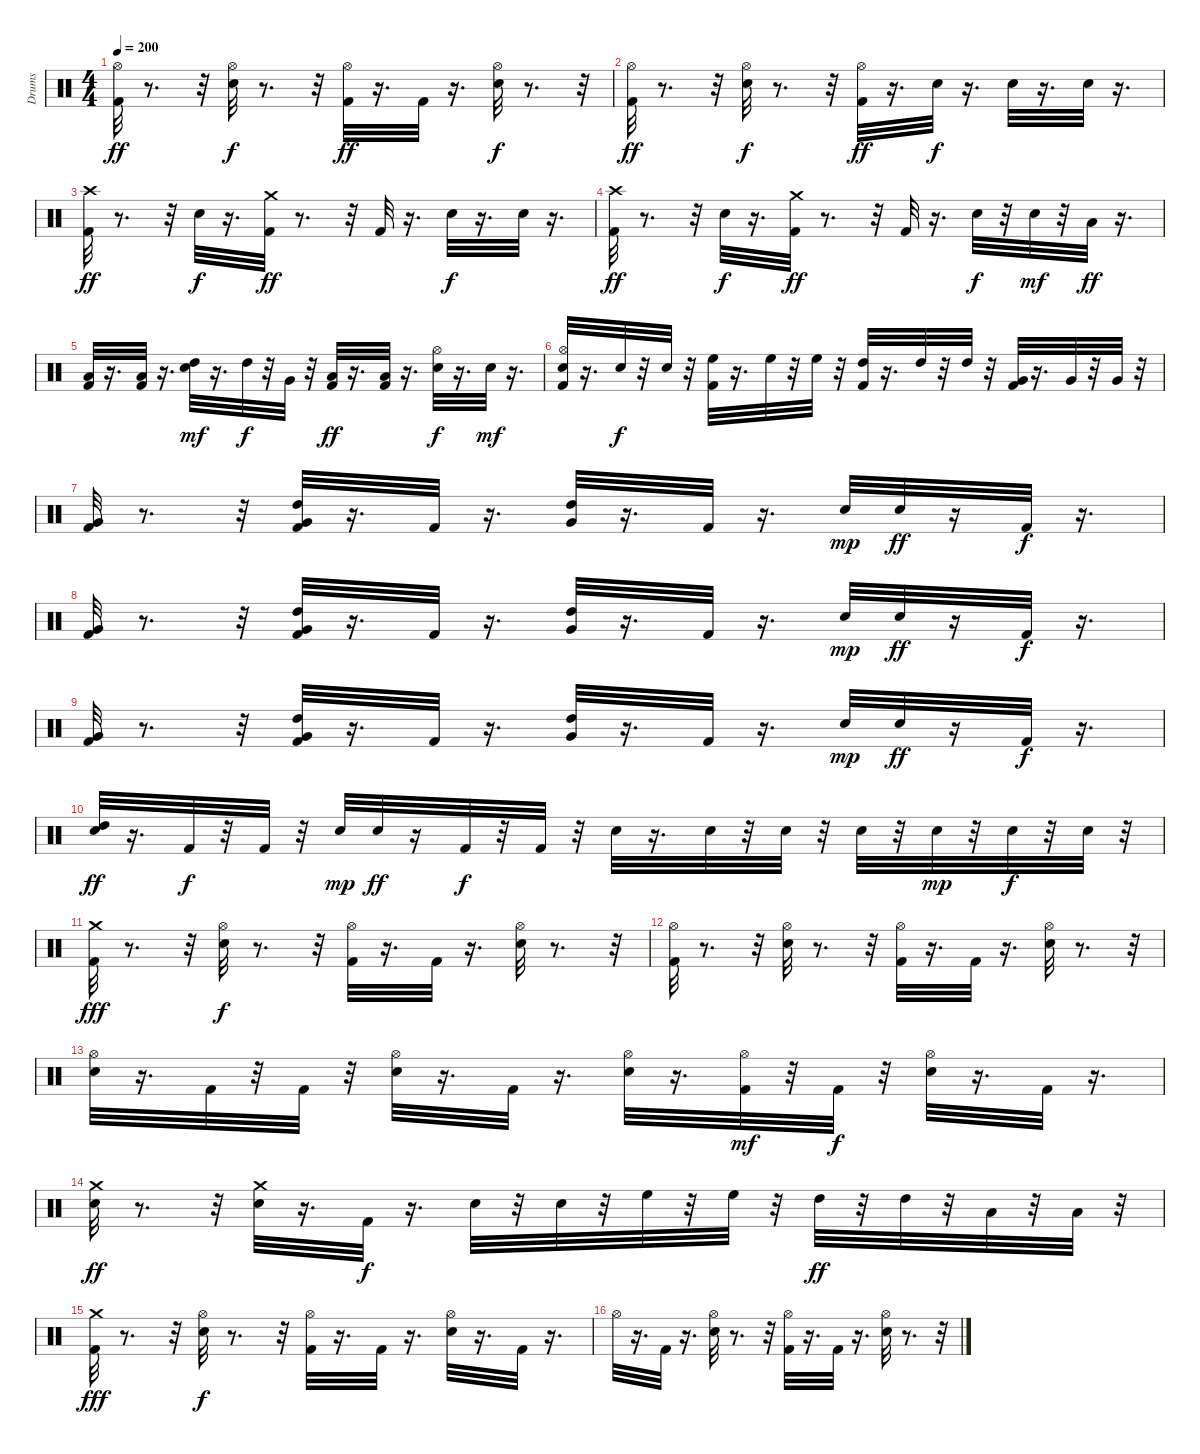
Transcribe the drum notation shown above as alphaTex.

\track ("Drums" "Drums") {instrument percussion}
\staff {score}
\articulation defaults
\ts (4 4)
\tempo 200
\clef neutral
\ks c
("Kick (hit) 2" "Hi-Hat (open)").32{dy ff} r.8{d} r.32 ("Snare (hit) 2" "Hi-Hat (open)").32{dy f} r.8{d} r.32 ("Kick (hit) 2" "Hi-Hat (open)").32{dy ff} r.16{d} "Kick (hit) 2".32 r.16{d} ("Snare (hit) 2" "Hi-Hat (open)").32{dy f} r.8{d} r.32 |
("Kick (hit) 2" "Hi-Hat (open)").32{dy ff} r.8{d} r.32 ("Snare (hit) 2" "Hi-Hat (open)").32{dy f} r.8{d} r.32 ("Kick (hit) 2" "Hi-Hat (open)").32{dy ff} r.16{d} "Snare (hit) 2".32{dy f} r.16{d} "Snare (hit) 2".32 r.16{d} "Snare (hit) 2".32 r.16{d} |
("Crash high (hit)" "Kick (hit) 2").32{dy ff} r.8{d} r.32 "Snare (hit) 2".32{dy f} r.16{d} ("Kick (hit) 2" "Crash medium (hit)").32{dy ff} r.8{d} r.32 "Kick (hit) 2".32 r.16{d} "Snare (hit) 2".32{dy f} r.16{d} "Snare (hit) 2".32 r.16{d} |
("Crash high (hit)" "Kick (hit) 2").32{dy ff} r.8{d} r.32 "Snare (hit) 2".32{dy f} r.16{d} ("Crash medium (hit)" "Kick (hit) 2").32{dy ff} r.8{d} r.32 "Kick (hit) 2".32 r.16{d} "Snare (hit) 2".32{dy f} r.32 "Snare (hit) 2".32{dy mf} r.32 "Low Floor Tom (hit)".32{dy ff} r.16{d} |
("Low Floor Tom (hit)" "Kick (hit) 2").32 r.16{d} ("Low Floor Tom (hit)" "Kick (hit) 2").32 r.16{d} ("High Tom (hit)" "Snare (hit) 2").32{dy mf} r.16{d} "High Tom (hit)".32{dy f} r.32 "Very Low Tom (hit)".32 r.32 ("Low Floor Tom (hit)" "Kick (hit) 2").32{dy ff} r.16{d} ("Low Floor Tom (hit)" "Kick (hit) 2").32 r.16{d} ("Hi-Hat (open)" "Snare (hit) 2").32{dy f} r.16{d} "Snare (hit) 2".32{dy mf} r.16{d} |
("Kick (hit) 2" "Snare (hit) 2" "Hi-Hat (open)").32 r.16{d} "Snare (hit) 2".32{dy f} r.32 "Snare (hit) 2".32 r.32 ("High Floor Tom (hit)" "Kick (hit) 2").32 r.16{d} "High Floor Tom (hit)".32 r.32 "High Floor Tom (hit)".32 r.32 ("High Tom (hit)" "Kick (hit) 2").32 r.16{d} "High Tom (hit)".32 r.32 "High Tom (hit)".32 r.32 ("Kick (hit) 2" "Very Low Tom (hit)").32 r.16{d} "Very Low Tom (hit)".32 r.32 "Very Low Tom (hit)".32 r.32 |
("Kick (hit) 2" "Very Low Tom (hit)").32 r.8{d} r.32 ("Kick (hit) 2" "High Tom (hit)" "Very Low Tom (hit)").32 r.16{d} "Kick (hit) 2".32 r.16{d} ("High Tom (hit)" "Very Low Tom (hit)").32 r.16{d} "Kick (hit) 2".32 r.16{d} "Snare (hit) 2".32{dy mp} "Snare (hit) 2".32{dy ff} r.16 "Kick (hit) 2".32{dy f} r.16{d} |
("Kick (hit) 2" "Very Low Tom (hit)").32 r.8{d} r.32 ("Kick (hit) 2" "High Tom (hit)" "Very Low Tom (hit)").32 r.16{d} "Kick (hit) 2".32 r.16{d} ("High Tom (hit)" "Very Low Tom (hit)").32 r.16{d} "Kick (hit) 2".32 r.16{d} "Snare (hit) 2".32{dy mp} "Snare (hit) 2".32{dy ff} r.16 "Kick (hit) 2".32{dy f} r.16{d} |
("Kick (hit) 2" "Very Low Tom (hit)").32 r.8{d} r.32 ("Kick (hit) 2" "High Tom (hit)" "Very Low Tom (hit)").32 r.16{d} "Kick (hit) 2".32 r.16{d} ("High Tom (hit)" "Very Low Tom (hit)").32 r.16{d} "Kick (hit) 2".32 r.16{d} "Snare (hit) 2".32{dy mp} "Snare (hit) 2".32{dy ff} r.16 "Kick (hit) 2".32{dy f} r.16{d} |
("High Tom (hit)" "Snare (hit) 2").32{dy ff} r.16{d} "Kick (hit) 2".32{dy f} r.32 "Kick (hit) 2".32 r.32 "Snare (hit) 2".32{dy mp} "Snare (hit) 2".32{dy ff} r.16 "Kick (hit) 2".32{dy f} r.32 "Kick (hit) 2".32 r.32 "Snare (hit) 2".32 r.16{d} "Snare (hit) 2".32 r.32 "Snare (hit) 2".32 r.32 "Snare (hit) 2".32 r.32 "Snare (hit) 2".32{dy mp} r.32 "Snare (hit) 2".32{dy f} r.32 "Snare (hit) 2".32 r.32 |
("Crash medium (hit)" "Kick (hit) 2").32{dy fff} r.8{d} r.32 ("Hi-Hat (open)" "Snare (hit) 2").32{dy f} r.8{d} r.32 ("Hi-Hat (open)" "Kick (hit) 2").32 r.16{d} "Kick (hit) 2".32 r.16{d} ("Hi-Hat (open)" "Snare (hit) 2").32 r.8{d} r.32 |
("Hi-Hat (open)" "Kick (hit) 2").32 r.8{d} r.32 ("Hi-Hat (open)" "Snare (hit) 2").32 r.8{d} r.32 ("Hi-Hat (open)" "Kick (hit) 2").32 r.16{d} "Kick (hit) 2".32 r.16{d} ("Hi-Hat (open)" "Snare (hit) 2").32 r.8{d} r.32 |
("Snare (hit) 2" "Hi-Hat (open)").32 r.16{d} "Kick (hit) 2".32 r.32 "Kick (hit) 2".32 r.32 ("Snare (hit) 2" "Hi-Hat (open)").32 r.16{d} "Kick (hit) 2".32 r.16{d} ("Snare (hit) 2" "Hi-Hat (open)").32 r.16{d} ("Kick (hit) 2" "Hi-Hat (open)").32{dy mf} r.32 "Kick (hit) 2".32{dy f} r.32 ("Snare (hit) 2" "Hi-Hat (open)").32 r.16{d} "Kick (hit) 2".32 r.16{d} |
("Crash medium (hit)" "Snare (hit) 2").32{dy ff} r.8{d} r.32 ("Crash medium (hit)" "Snare (hit) 2").32 r.16{d} "Kick (hit) 2".32{dy f} r.16{d} "Snare (hit) 2".32 r.32 "Snare (hit) 2".32 r.32 "High Floor Tom (hit)".32 r.32 "High Floor Tom (hit)".32 r.32 "High Tom (hit)".32{dy ff} r.32 "High Tom (hit)".32 r.32 "Low Floor Tom (hit)".32 r.32 "Low Floor Tom (hit)".32 r.32 |
("Crash medium (hit)" "Kick (hit) 2").32{dy fff} r.8{d} r.32 ("Hi-Hat (open)" "Snare (hit) 2").32{dy f} r.8{d} r.32 ("Hi-Hat (open)" "Kick (hit) 2").32 r.16{d} "Kick (hit) 2".32 r.16{d} ("Hi-Hat (open)" "Snare (hit) 2").32 r.16{d} "Kick (hit) 2".32 r.16{d} |
"Hi-Hat (open)".32 r.16{d} "Kick (hit) 2".32 r.16{d} ("Hi-Hat (open)" "Snare (hit) 2").32 r.8{d} r.32 ("Hi-Hat (open)" "Kick (hit) 2").32 r.16{d} "Kick (hit) 2".32 r.16{d} ("Hi-Hat (open)" "Snare (hit) 2").32 r.8{d} r.32
